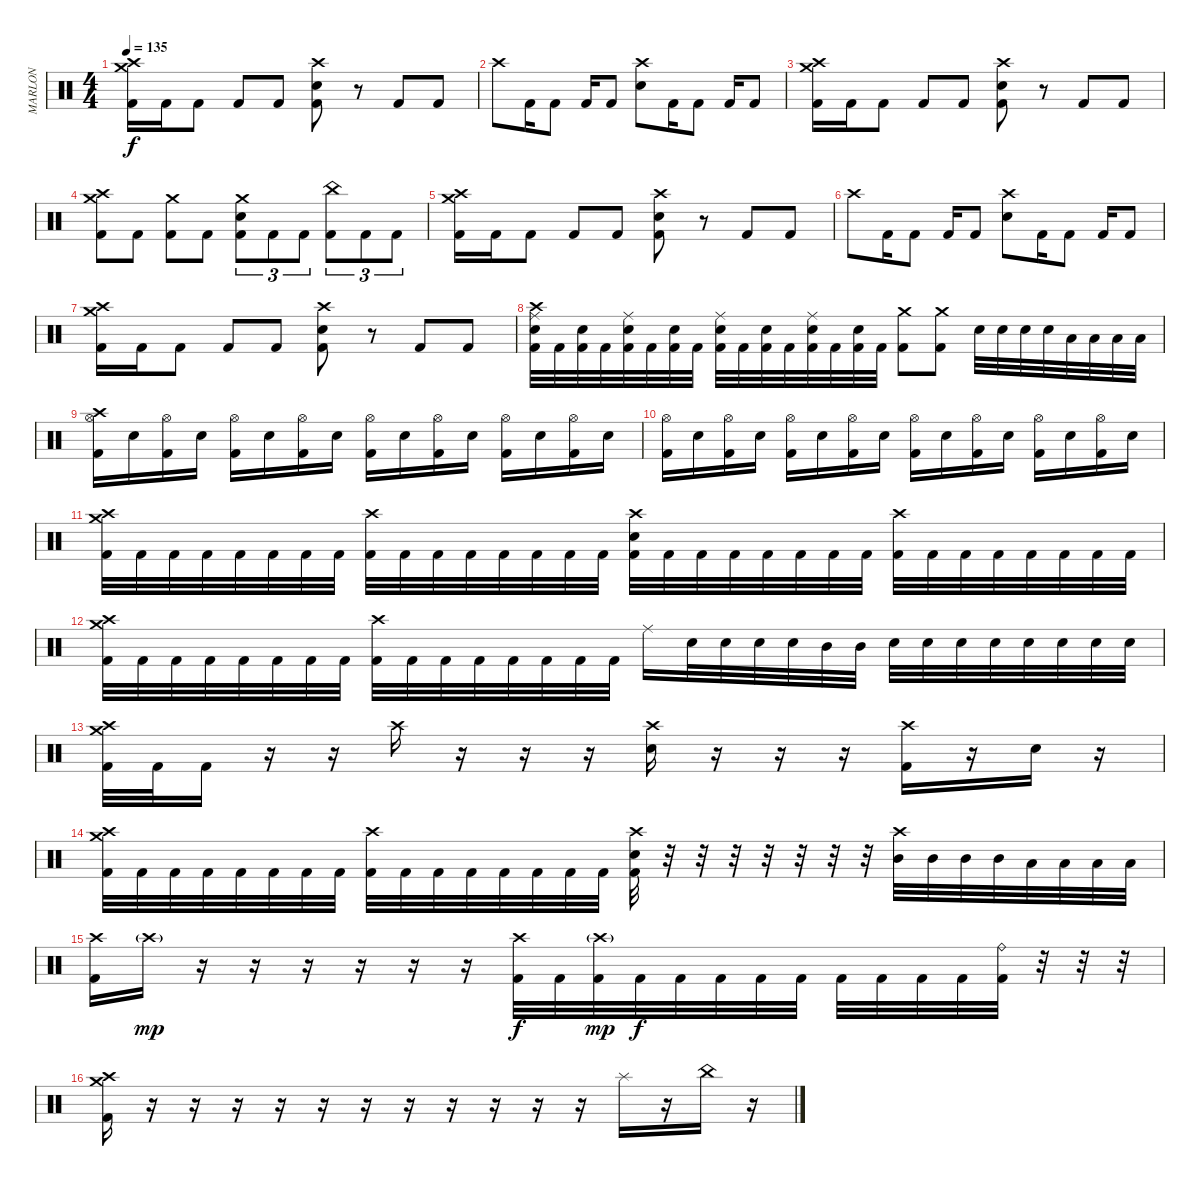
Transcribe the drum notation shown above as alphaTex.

\track ("MARLON" "MARLON") {instrument percussion}
\staff {score}
\articulation defaults
\ts (4 4)
\tempo 135
\clef neutral
\ks c
("Crash high (hit)" "Crash medium (hit)" "Kick (hit) 2").16{dy f} "Kick (hit) 2".16 "Kick (hit) 2".8 "Kick (hit) 2".8 "Kick (hit) 2".8 ("Crash high (hit)" "Electric Snare (hit)" "Kick (hit) 2").8 r.8 "Kick (hit) 2".8 "Kick (hit) 2".8 |
"Crash high (hit)".8 "Kick (hit) 2".16 "Kick (hit) 2".8 "Kick (hit) 2".16 "Kick (hit) 2".8 ("Crash high (hit)" "Electric Snare (hit)").8 "Kick (hit) 2".16 "Kick (hit) 2".8 "Kick (hit) 2".16 "Kick (hit) 2".8 |
("Crash high (hit)" "Crash medium (hit)" "Kick (hit) 2").16 "Kick (hit) 2".16 "Kick (hit) 2".8 "Kick (hit) 2".8 "Kick (hit) 2".8 ("Crash high (hit)" "Electric Snare (hit)" "Kick (hit) 2").8 r.8 "Kick (hit) 2".8 "Kick (hit) 2".8 |
("Crash medium (hit)" "Crash high (hit)" "Kick (hit) 2").8 "Kick (hit) 2".8 ("Crash medium (hit)" "Kick (hit) 2").8 "Kick (hit) 2".8 ("Crash medium (hit)" "Electric Snare (hit)" "Kick (hit) 2").8{tu (3 2)} "Kick (hit) 2".8{tu (3 2)} "Kick (hit) 2".8{tu (3 2)} ("China (hit)" "Kick (hit) 2").8{tu (3 2)} "Kick (hit) 2".8{tu (3 2)} "Kick (hit) 2".8{tu (3 2)} |
("Crash high (hit)" "Crash medium (hit)" "Kick (hit) 2").16 "Kick (hit) 2".16 "Kick (hit) 2".8 "Kick (hit) 2".8 "Kick (hit) 2".8 ("Crash high (hit)" "Electric Snare (hit)" "Kick (hit) 2").8 r.8 "Kick (hit) 2".8 "Kick (hit) 2".8 |
"Crash high (hit)".8 "Kick (hit) 2".16 "Kick (hit) 2".8 "Kick (hit) 2".16 "Kick (hit) 2".8 ("Crash high (hit)" "Electric Snare (hit)").8 "Kick (hit) 2".16 "Kick (hit) 2".8 "Kick (hit) 2".16 "Kick (hit) 2".8 |
("Crash high (hit)" "Crash medium (hit)" "Kick (hit) 2").16 "Kick (hit) 2".16 "Kick (hit) 2".8 "Kick (hit) 2".8 "Kick (hit) 2".8 ("Crash high (hit)" "Electric Snare (hit)" "Kick (hit) 2").8 r.8 "Kick (hit) 2".8 "Kick (hit) 2".8 |
("Ride (middle)" "Crash high (hit)" "Electric Snare (hit)" "Kick (hit) 2").32 "Kick (hit) 2".32 ("Electric Snare (hit)" "Kick (hit) 2").32 "Kick (hit) 2".32 ("Ride (middle)" "Electric Snare (hit)" "Kick (hit) 2").32 "Kick (hit) 2".32 ("Electric Snare (hit)" "Kick (hit) 2").32 "Kick (hit) 2".32 ("Ride (middle)" "Electric Snare (hit)" "Kick (hit) 2").32 "Kick (hit) 2".32 ("Electric Snare (hit)" "Kick (hit) 2").32 "Kick (hit) 2".32 ("Ride (middle)" "Electric Snare (hit)" "Kick (hit) 2").32 "Kick (hit) 2".32 ("Electric Snare (hit)" "Kick (hit) 2").32 "Kick (hit) 2".32 ("Crash medium (hit)" "Kick (hit) 2").8 ("Crash medium (hit)" "Kick (hit) 2").8 "Electric Snare (hit)".32 "Electric Snare (hit)".32 "Electric Snare (hit)".32 "Electric Snare (hit)".32 "Low Tom (hit)".32 "Low Tom (hit)".32 "Low Tom (hit)".32 "Low Tom (hit)".32 |
("Crash high (hit)" "Hi-Hat (open)" "Kick (hit) 2").16 "Electric Snare (hit)".16 ("Hi-Hat (open)" "Kick (hit) 2").16 "Electric Snare (hit)".16 ("Hi-Hat (open)" "Kick (hit) 2").16 "Electric Snare (hit)".16 ("Hi-Hat (open)" "Kick (hit) 2").16 "Electric Snare (hit)".16 ("Hi-Hat (open)" "Kick (hit) 2").16 "Electric Snare (hit)".16 ("Hi-Hat (open)" "Kick (hit) 2").16 "Electric Snare (hit)".16 ("Hi-Hat (open)" "Kick (hit) 2").16 "Electric Snare (hit)".16 ("Hi-Hat (open)" "Kick (hit) 2").16 "Electric Snare (hit)".16 |
("Hi-Hat (open)" "Kick (hit) 2").16 "Electric Snare (hit)".16 ("Hi-Hat (open)" "Kick (hit) 2").16 "Electric Snare (hit)".16 ("Hi-Hat (open)" "Kick (hit) 2").16 "Electric Snare (hit)".16 ("Hi-Hat (open)" "Kick (hit) 2").16 "Electric Snare (hit)".16 ("Hi-Hat (open)" "Kick (hit) 2").16 "Electric Snare (hit)".16 ("Hi-Hat (open)" "Kick (hit) 2").16 "Electric Snare (hit)".16 ("Hi-Hat (open)" "Kick (hit) 2").16 "Electric Snare (hit)".16 ("Hi-Hat (open)" "Kick (hit) 2").16 "Electric Snare (hit)".16 |
("Crash high (hit)" "Crash medium (hit)" "Kick (hit) 2").32 "Kick (hit) 2".32 "Kick (hit) 2".32 "Kick (hit) 2".32 "Kick (hit) 2".32 "Kick (hit) 2".32 "Kick (hit) 2".32 "Kick (hit) 2".32 ("Crash high (hit)" "Kick (hit) 2").32 "Kick (hit) 2".32 "Kick (hit) 2".32 "Kick (hit) 2".32 "Kick (hit) 2".32 "Kick (hit) 2".32 "Kick (hit) 2".32 "Kick (hit) 2".32 ("Crash high (hit)" "Electric Snare (hit)" "Kick (hit) 2").32 "Kick (hit) 2".32 "Kick (hit) 2".32 "Kick (hit) 2".32 "Kick (hit) 2".32 "Kick (hit) 2".32 "Kick (hit) 2".32 "Kick (hit) 2".32 ("Crash high (hit)" "Kick (hit) 2").32 "Kick (hit) 2".32 "Kick (hit) 2".32 "Kick (hit) 2".32 "Kick (hit) 2".32 "Kick (hit) 2".32 "Kick (hit) 2".32 "Kick (hit) 2".32 |
("Crash high (hit)" "Crash medium (hit)" "Kick (hit) 2").32 "Kick (hit) 2".32 "Kick (hit) 2".32 "Kick (hit) 2".32 "Kick (hit) 2".32 "Kick (hit) 2".32 "Kick (hit) 2".32 "Kick (hit) 2".32 ("Crash high (hit)" "Kick (hit) 2").32 "Kick (hit) 2".32 "Kick (hit) 2".32 "Kick (hit) 2".32 "Kick (hit) 2".32 "Kick (hit) 2".32 "Kick (hit) 2".32 "Kick (hit) 2".32 "Ride (middle)".16 "Electric Snare (hit)".32 "Electric Snare (hit)".32 "Electric Snare (hit)".32 "Electric Snare (hit)".32 "Mid Tom (hit)".32 "Mid Tom (hit)".32 "Electric Snare (hit)".32 "Electric Snare (hit)".32 "Electric Snare (hit)".32 "Electric Snare (hit)".32 "Electric Snare (hit)".32 "Electric Snare (hit)".32 "Electric Snare (hit)".32 "Electric Snare (hit)".32 |
("Crash high (hit)" "Crash medium (hit)" "Kick (hit) 2").32 "Kick (hit) 2".32 "Kick (hit) 2".16 r.16 r.16 "Crash high (hit)".16 r.16 r.16 r.16 ("Crash high (hit)" "Electric Snare (hit)").16 r.16 r.16 r.16 ("Crash high (hit)" "Kick (hit) 2").16 r.16 "Electric Snare (hit)".16 r.16 |
("Crash high (hit)" "Crash medium (hit)" "Kick (hit) 2").32 "Kick (hit) 2".32 "Kick (hit) 2".32 "Kick (hit) 2".32 "Kick (hit) 2".32 "Kick (hit) 2".32 "Kick (hit) 2".32 "Kick (hit) 2".32 ("Crash high (hit)" "Kick (hit) 2").32 "Kick (hit) 2".32 "Kick (hit) 2".32 "Kick (hit) 2".32 "Kick (hit) 2".32 "Kick (hit) 2".32 "Kick (hit) 2".32 "Kick (hit) 2".32 ("Crash high (hit)" "Electric Snare (hit)" "Kick (hit) 2").32 r.32 r.32 r.32 r.32 r.32 r.32 r.32 ("Crash high (hit)" "Mid Tom (hit)").32 "Mid Tom (hit)".32 "Mid Tom (hit)".32 "Mid Tom (hit)".32 "Low Tom (hit)".32 "Low Tom (hit)".32 "Low Tom (hit)".32 "Low Tom (hit)".32 |
("Crash high (hit)" "Kick (hit) 2").16 "Crash high (hit)"{g}.16{dy mp} r.16 r.16 r.16 r.16 r.16 r.16 ("Crash high (hit)" "Kick (hit) 2").32{dy f} "Kick (hit) 2".32 ("Crash high (hit)"{g} "Kick (hit) 2").32{dy mp} "Kick (hit) 2".32{dy f} "Kick (hit) 2".32 "Kick (hit) 2".32 "Kick (hit) 2".32 "Kick (hit) 2".32 "Kick (hit) 2".32 "Kick (hit) 2".32 "Kick (hit) 2".32 "Kick (hit) 2".32 ("Ride (bell)" "Kick (hit) 2").32 r.32 r.32 r.32 |
("Crash high (hit)" "Crash medium (hit)" "Kick (hit) 2").16 r.16 r.16 r.16 r.16 r.16 r.16 r.16 r.16 r.16 r.16 r.16 "Splash (hit)".16 r.16 "China (hit)".16 r.16
